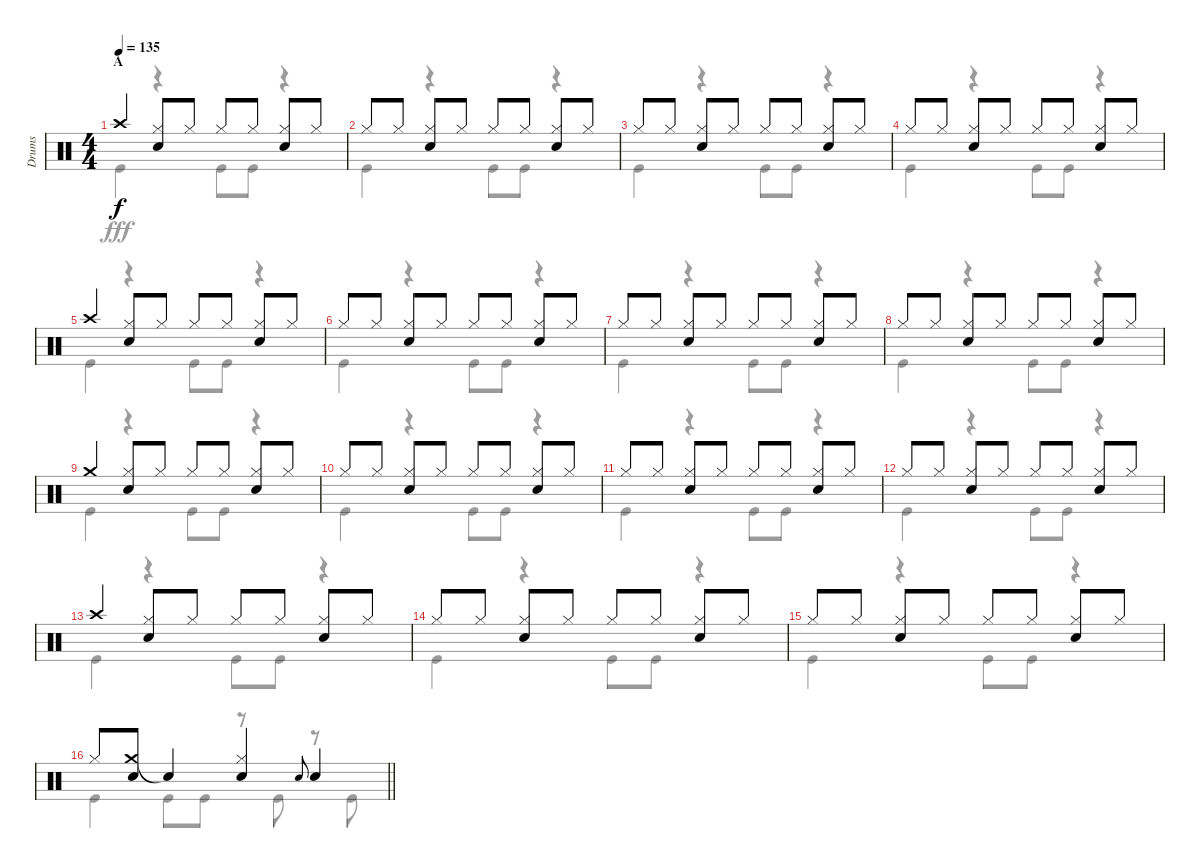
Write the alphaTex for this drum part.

\track ("Drums" "Drums") {instrument percussion}
\staff {score}
\articulation defaults
\voice
\ts (4 4)
\section ("" "A")
\tempo 135
\clef neutral
\ks c "Crash high (hit)".4{dy f}
("Hi-Hat (closed)" "Snare (hit) 2").8 "Hi-Hat (closed)".8 "Hi-Hat (closed)".8 "Hi-Hat (closed)".8 ("Hi-Hat (closed)" "Snare (hit) 2").8 "Hi-Hat (closed)".8 |
"Hi-Hat (closed)".8 "Hi-Hat (closed)".8 ("Hi-Hat (closed)" "Snare (hit) 2").8 "Hi-Hat (closed)".8 "Hi-Hat (closed)".8 "Hi-Hat (closed)".8 ("Hi-Hat (closed)" "Snare (hit) 2").8 "Hi-Hat (closed)".8 |
"Hi-Hat (closed)".8 "Hi-Hat (closed)".8 ("Hi-Hat (closed)" "Snare (hit) 2").8 "Hi-Hat (closed)".8 "Hi-Hat (closed)".8 "Hi-Hat (closed)".8 ("Hi-Hat (closed)" "Snare (hit) 2").8 "Hi-Hat (closed)".8 |
"Hi-Hat (closed)".8 "Hi-Hat (closed)".8 ("Hi-Hat (closed)" "Snare (hit) 2").8 "Hi-Hat (closed)".8 "Hi-Hat (closed)".8 "Hi-Hat (closed)".8 ("Hi-Hat (closed)" "Snare (hit) 2").8 "Hi-Hat (closed)".8 |
"Crash high (hit)".4 ("Hi-Hat (closed)" "Snare (hit) 2").8 "Hi-Hat (closed)".8 "Hi-Hat (closed)".8 "Hi-Hat (closed)".8 ("Hi-Hat (closed)" "Snare (hit) 2").8 "Hi-Hat (closed)".8 |
"Hi-Hat (closed)".8 "Hi-Hat (closed)".8 ("Hi-Hat (closed)" "Snare (hit) 2").8 "Hi-Hat (closed)".8 "Hi-Hat (closed)".8 "Hi-Hat (closed)".8 ("Hi-Hat (closed)" "Snare (hit) 2").8 "Hi-Hat (closed)".8 |
"Hi-Hat (closed)".8 "Hi-Hat (closed)".8 ("Hi-Hat (closed)" "Snare (hit) 2").8 "Hi-Hat (closed)".8 "Hi-Hat (closed)".8 "Hi-Hat (closed)".8 ("Hi-Hat (closed)" "Snare (hit) 2").8 "Hi-Hat (closed)".8 |
"Hi-Hat (closed)".8 "Hi-Hat (closed)".8 ("Hi-Hat (closed)" "Snare (hit) 2").8 "Hi-Hat (closed)".8 "Hi-Hat (closed)".8 "Hi-Hat (closed)".8 ("Hi-Hat (closed)" "Snare (hit) 2").8 "Hi-Hat (closed)".8 |
"Crash medium (hit)".4 ("Hi-Hat (closed)" "Snare (hit) 2").8 "Hi-Hat (closed)".8 "Hi-Hat (closed)".8 "Hi-Hat (closed)".8 ("Hi-Hat (closed)" "Snare (hit) 2").8 "Hi-Hat (closed)".8 |
"Hi-Hat (closed)".8 "Hi-Hat (closed)".8 ("Hi-Hat (closed)" "Snare (hit) 2").8 "Hi-Hat (closed)".8 "Hi-Hat (closed)".8 "Hi-Hat (closed)".8 ("Hi-Hat (closed)" "Snare (hit) 2").8 "Hi-Hat (closed)".8 |
"Hi-Hat (closed)".8 "Hi-Hat (closed)".8 ("Hi-Hat (closed)" "Snare (hit) 2").8 "Hi-Hat (closed)".8 "Hi-Hat (closed)".8 "Hi-Hat (closed)".8 ("Hi-Hat (closed)" "Snare (hit) 2").8 "Hi-Hat (closed)".8 |
"Hi-Hat (closed)".8 "Hi-Hat (closed)".8 ("Hi-Hat (closed)" "Snare (hit) 2").8 "Hi-Hat (closed)".8 "Hi-Hat (closed)".8 "Hi-Hat (closed)".8 ("Hi-Hat (closed)" "Snare (hit) 2").8 "Hi-Hat (closed)".8 |
"Crash high (hit)".4 ("Hi-Hat (closed)" "Snare (hit) 2").8 "Hi-Hat (closed)".8 "Hi-Hat (closed)".8 "Hi-Hat (closed)".8 ("Hi-Hat (closed)" "Snare (hit) 2").8 "Hi-Hat (closed)".8 |
"Hi-Hat (closed)".8 "Hi-Hat (closed)".8 ("Hi-Hat (closed)" "Snare (hit) 2").8 "Hi-Hat (closed)".8 "Hi-Hat (closed)".8 "Hi-Hat (closed)".8 ("Hi-Hat (closed)" "Snare (hit) 2").8 "Hi-Hat (closed)".8 |
"Hi-Hat (closed)".8 "Hi-Hat (closed)".8 ("Hi-Hat (closed)" "Snare (hit) 2").8 "Hi-Hat (closed)".8 "Hi-Hat (closed)".8 "Hi-Hat (closed)".8 ("Hi-Hat (closed)" "Snare (hit) 2").8 "Hi-Hat (closed)".8 |
\barLineRight lightlight "Hi-Hat (closed)".8
("Crash medium (hit)" "Snare (hit) 2").8 "Snare (hit)"{t}.4 ("Hi-Hat (closed)" "Snare (hit) 2").4 "Snare (hit) 2".8{gr onbeat} "Snare (hit) 2".4
\voice
\clef neutral
\ottava regular
\simile none
\ks c "Kick (hit)".4{dy fff}
r.4 "Kick (hit)".8 "Kick (hit)".8 r.4 |
"Kick (hit)".4 r.4 "Kick (hit)".8 "Kick (hit)".8 r.4 |
"Kick (hit)".4 r.4 "Kick (hit)".8 "Kick (hit)".8 r.4 |
"Kick (hit)".4 r.4 "Kick (hit)".8 "Kick (hit)".8 r.4 |
"Kick (hit)".4 r.4 "Kick (hit)".8 "Kick (hit)".8 r.4 |
"Kick (hit)".4 r.4 "Kick (hit)".8 "Kick (hit)".8 r.4 |
"Kick (hit)".4 r.4 "Kick (hit)".8 "Kick (hit)".8 r.4 |
"Kick (hit)".4 r.4 "Kick (hit)".8 "Kick (hit)".8 r.4 |
"Kick (hit)".4 r.4 "Kick (hit)".8 "Kick (hit)".8 r.4 |
"Kick (hit)".4 r.4 "Kick (hit)".8 "Kick (hit)".8 r.4 |
"Kick (hit)".4 r.4 "Kick (hit)".8 "Kick (hit)".8 r.4 |
"Kick (hit)".4 r.4 "Kick (hit)".8 "Kick (hit)".8 r.4 |
"Kick (hit)".4 r.4 "Kick (hit)".8 "Kick (hit)".8 r.4 |
"Kick (hit)".4 r.4 "Kick (hit)".8 "Kick (hit)".8 r.4 |
"Kick (hit)".4 r.4 "Kick (hit)".8 "Kick (hit)".8 r.4 |
\barLineRight lightlight "Kick (hit)".4 "Kick (hit)".8 "Kick (hit)".8
r.8 "Kick (hit)".8 r.8 "Kick (hit)".8
